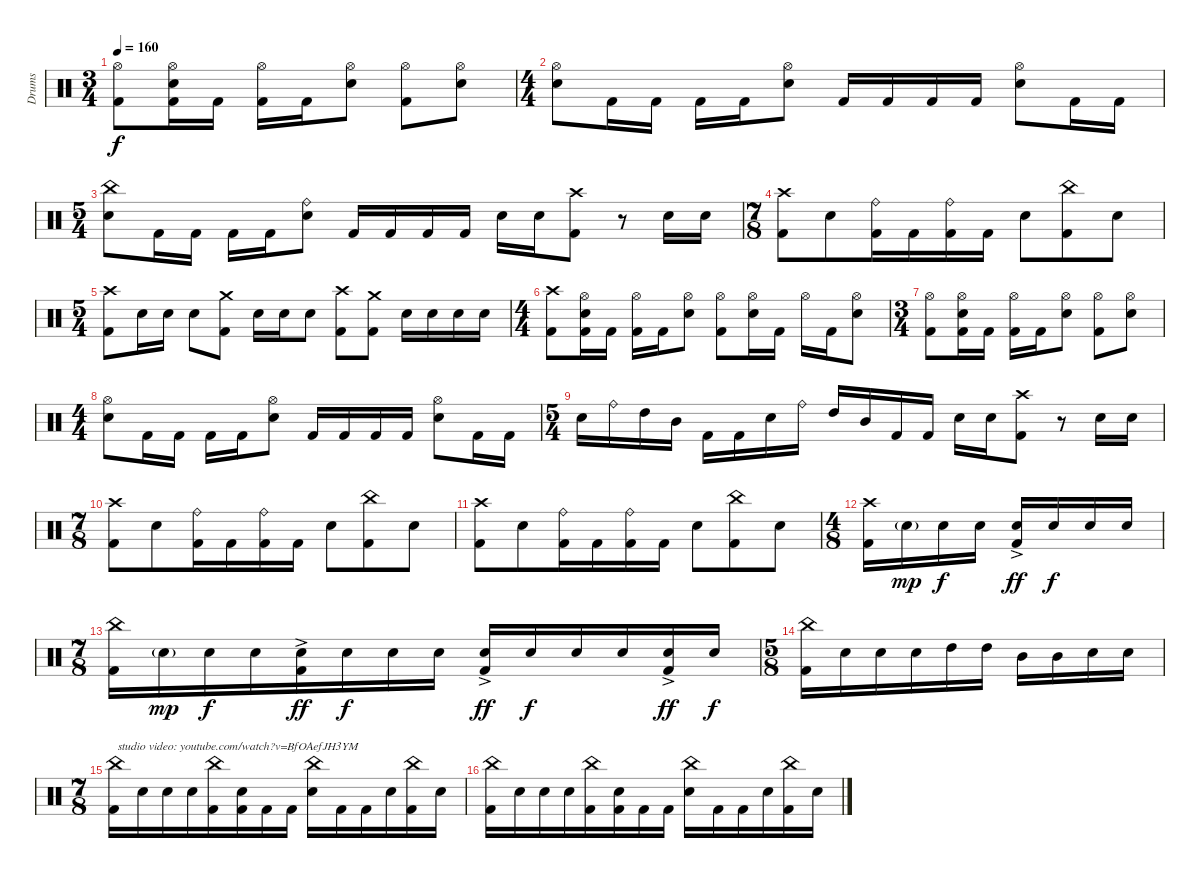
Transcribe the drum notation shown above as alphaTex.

\track ("Drums" "Drums") {instrument percussion}
\staff {score}
\articulation defaults
\ts (3 4)
\tempo 160
\clef neutral
\ks c
("Hi-Hat (open)" "Kick (hit) 2").8{dy f} ("Hi-Hat (open)" "Electric Snare (hit)" "Kick (hit) 2").16 "Kick (hit) 2".16 ("Hi-Hat (open)" "Kick (hit) 2").16 "Kick (hit) 2".16 ("Hi-Hat (open)" "Electric Snare (hit)").8 ("Hi-Hat (open)" "Kick (hit) 2").8 ("Hi-Hat (open)" "Electric Snare (hit)").8 |
\ts (4 4)
("Hi-Hat (open)" "Electric Snare (hit)").8 "Kick (hit) 2".16 "Kick (hit) 2".16 "Kick (hit) 2".16 "Kick (hit) 2".16 ("Hi-Hat (open)" "Electric Snare (hit)").8 "Kick (hit) 2".16 "Kick (hit) 2".16 "Kick (hit) 2".16 "Kick (hit) 2".16 ("Hi-Hat (open)" "Electric Snare (hit)").8 "Kick (hit) 2".16 "Kick (hit) 2".16 |
\ts (5 4)
("China (hit)" "Electric Snare (hit)").8 "Kick (hit) 2".16 "Kick (hit) 2".16 "Kick (hit) 2".16 "Kick (hit) 2".16 ("Ride (bell)" "Electric Snare (hit)").8 "Kick (hit) 2".16 "Kick (hit) 2".16 "Kick (hit) 2".16 "Kick (hit) 2".16 "Electric Snare (hit)".16 "Electric Snare (hit)".16 ("Crash high (hit)" "Kick (hit) 2").8 r.8 "Electric Snare (hit)".16 "Electric Snare (hit)".16 |
\ts (7 8)
("Crash high (hit)" "Kick (hit) 2").8 "Electric Snare (hit)".8 ("Ride (bell)" "Kick (hit) 2").16 "Kick (hit) 2".16 ("Ride (bell)" "Kick (hit) 2").16 "Kick (hit) 2".16 "Electric Snare (hit)".8 ("China (hit)" "Kick (hit) 2").8 "Electric Snare (hit)".8 |
\ts (5 4)
("Crash high (hit)" "Kick (hit) 2").8 "Electric Snare (hit)".16 "Electric Snare (hit)".16 "Electric Snare (hit)".8 ("Crash medium (hit)" "Kick (hit) 2").8 "Electric Snare (hit)".16 "Electric Snare (hit)".16 "Electric Snare (hit)".8 ("Crash high (hit)" "Kick (hit) 2").8 ("Crash medium (hit)" "Kick (hit) 2").8 "Electric Snare (hit)".16 "Electric Snare (hit)".16 "Electric Snare (hit)".16 "Electric Snare (hit)".16 |
\ts (4 4)
("Crash high (hit)" "Kick (hit) 2").8 ("Hi-Hat (open)" "Electric Snare (hit)" "Kick (hit) 2").16 "Kick (hit) 2".16 ("Hi-Hat (open)" "Kick (hit) 2").16 "Kick (hit) 2".16 ("Hi-Hat (open)" "Electric Snare (hit)").8 ("Hi-Hat (open)" "Kick (hit) 2").8 ("Hi-Hat (open)" "Electric Snare (hit)").16 "Kick (hit) 2".16 "Hi-Hat (open)".16 "Kick (hit) 2".16 ("Hi-Hat (open)" "Electric Snare (hit)").8 |
\ts (3 4)
("Hi-Hat (open)" "Kick (hit) 2").8 ("Hi-Hat (open)" "Electric Snare (hit)" "Kick (hit) 2").16 "Kick (hit) 2".16 ("Hi-Hat (open)" "Kick (hit) 2").16 "Kick (hit) 2".16 ("Hi-Hat (open)" "Electric Snare (hit)").8 ("Hi-Hat (open)" "Kick (hit) 2").8 ("Hi-Hat (open)" "Electric Snare (hit)").8 |
\ts (4 4)
("Hi-Hat (open)" "Electric Snare (hit)").8 "Kick (hit) 2".16 "Kick (hit) 2".16 "Kick (hit) 2".16 "Kick (hit) 2".16 ("Hi-Hat (open)" "Electric Snare (hit)").8 "Kick (hit) 2".16 "Kick (hit) 2".16 "Kick (hit) 2".16 "Kick (hit) 2".16 ("Hi-Hat (open)" "Electric Snare (hit)").8 "Kick (hit) 2".16 "Kick (hit) 2".16 |
\ts (5 4)
"Electric Snare (hit)".16 "Ride (bell)".16 "High Tom (hit)".16 "Mid Tom (hit)".16 "Kick (hit) 2".16 "Kick (hit) 2".16 "Electric Snare (hit)".16 "Ride (bell)".16 "High Tom (hit)".16 "Mid Tom (hit)".16 "Kick (hit) 2".16 "Kick (hit) 2".16 "Electric Snare (hit)".16 "Electric Snare (hit)".16 ("Crash high (hit)" "Kick (hit) 2").8 r.8 "Electric Snare (hit)".16 "Electric Snare (hit)".16 |
\ts (7 8)
("Crash high (hit)" "Kick (hit) 2").8 "Electric Snare (hit)".8 ("Ride (bell)" "Kick (hit) 2").16 "Kick (hit) 2".16 ("Ride (bell)" "Kick (hit) 2").16 "Kick (hit) 2".16 "Electric Snare (hit)".8 ("China (hit)" "Kick (hit) 2").8 "Electric Snare (hit)".8 |
("Crash high (hit)" "Kick (hit) 2").8 "Electric Snare (hit)".8 ("Ride (bell)" "Kick (hit) 2").16 "Kick (hit) 2".16 ("Ride (bell)" "Kick (hit) 2").16 "Kick (hit) 2".16 "Electric Snare (hit)".8 ("China (hit)" "Kick (hit) 2").8 "Electric Snare (hit)".8 |
\ts (4 8)
("Crash high (hit)" "Kick (hit) 2").16 "Electric Snare (hit)"{g}.16{dy mp} "Electric Snare (hit)".16{dy f} "Electric Snare (hit)".16 ("Electric Snare (hit)"{ac} "Kick (hit) 2").16{dy ff} "Electric Snare (hit)".16{dy f} "Electric Snare (hit)".16 "Electric Snare (hit)".16 |
\ts (7 8)
("China (hit)" "Kick (hit) 2").16 "Electric Snare (hit)"{g}.16{dy mp} "Electric Snare (hit)".16{dy f} "Electric Snare (hit)".16 ("Electric Snare (hit)"{ac} "Kick (hit) 2").16{dy ff} "Electric Snare (hit)".16{dy f} "Electric Snare (hit)".16 "Electric Snare (hit)".16 ("Electric Snare (hit)"{ac} "Kick (hit) 2").16{dy ff} "Electric Snare (hit)".16{dy f} "Electric Snare (hit)".16 "Electric Snare (hit)".16 ("Electric Snare (hit)"{ac} "Kick (hit) 2").16{dy ff} "Electric Snare (hit)".16{dy f} |
\ts (5 8)
("China (hit)" "Kick (hit) 2").16 "Electric Snare (hit)".16 "Electric Snare (hit)".16 "Electric Snare (hit)".16 "High Tom (hit)".16 "High Tom (hit)".16 "Mid Tom (hit)".16 "Mid Tom (hit)".16 "Electric Snare (hit)".16 "Electric Snare (hit)".16 |
\ts (7 8)
("China (hit)" "Kick (hit) 2").16{txt "studio video: youtube.com/watch?v=BfOAefJH3YM"} "Electric Snare (hit)".16 "Electric Snare (hit)".16 "Electric Snare (hit)".16 ("China (hit)" "Kick (hit) 2").16 ("Electric Snare (hit)" "Kick (hit) 2").16 "Kick (hit) 2".16 "Kick (hit) 2".16 ("China (hit)" "Electric Snare (hit)").16 "Kick (hit) 2".16 "Kick (hit) 2".16 "Electric Snare (hit)".16 ("China (hit)" "Kick (hit) 2").16 "Electric Snare (hit)".16 |
("China (hit)" "Kick (hit) 2").16 "Electric Snare (hit)".16 "Electric Snare (hit)".16 "Electric Snare (hit)".16 ("China (hit)" "Kick (hit) 2").16 ("Electric Snare (hit)" "Kick (hit) 2").16 "Kick (hit) 2".16 "Kick (hit) 2".16 ("China (hit)" "Electric Snare (hit)").16 "Kick (hit) 2".16 "Kick (hit) 2".16 "Electric Snare (hit)".16 ("China (hit)" "Kick (hit) 2").16 "Electric Snare (hit)".16
